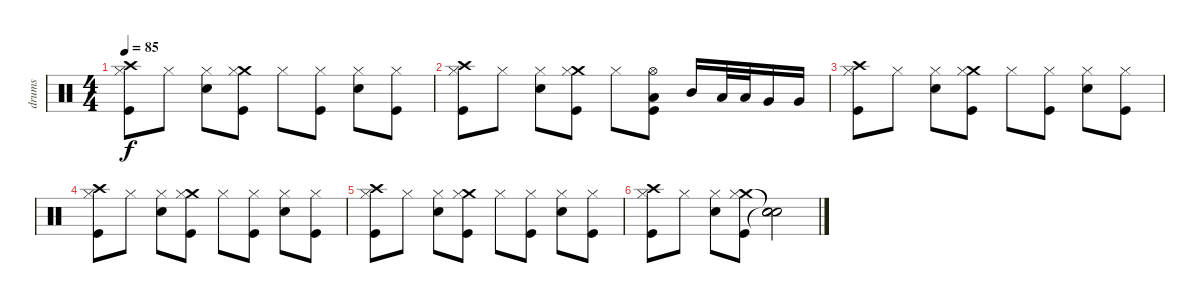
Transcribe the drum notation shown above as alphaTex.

\track ("drums" "drums") {instrument percussion}
\staff {score}
\articulation defaults
\ts (4 4)
\tempo 85
\clef neutral
\ks c
("Crash high (hit)" "Hi-Hat (closed)" "Kick (hit)").8{dy f} "Hi-Hat (closed)".8 ("Hi-Hat (closed)" "Snare (hit) 2").8 ("Crash medium (hit)" "Hi-Hat (closed)" "Kick (hit)").8 "Hi-Hat (closed)".8 ("Hi-Hat (closed)" "Kick (hit)").8 ("Hi-Hat (closed)" "Snare (hit) 2").8 ("Hi-Hat (closed)" "Kick (hit)").8 |
("Crash high (hit)" "Hi-Hat (closed)" "Kick (hit)").8 "Hi-Hat (closed)".8 ("Hi-Hat (closed)" "Snare (hit) 2").8 ("Crash medium (hit)" "Hi-Hat (closed)" "Kick (hit)").8 "Hi-Hat (closed)".8 ("Hi-Hat (open)" "Low Floor Tom (hit)" "Kick (hit)").8 "Mid Tom (hit)".16 "Low Tom (hit)".32 "Low Tom (hit)".32 "Very Low Tom (hit)".16 "Very Low Tom (hit)".16 |
("Crash high (hit)" "Hi-Hat (closed)" "Kick (hit)").8 "Hi-Hat (closed)".8 ("Hi-Hat (closed)" "Snare (hit) 2").8 ("Crash medium (hit)" "Hi-Hat (closed)" "Kick (hit)").8 "Hi-Hat (closed)".8 ("Hi-Hat (closed)" "Kick (hit)").8 ("Hi-Hat (closed)" "Snare (hit) 2").8 ("Hi-Hat (closed)" "Kick (hit)").8 |
("Crash high (hit)" "Hi-Hat (closed)" "Kick (hit)").8 "Hi-Hat (closed)".8 ("Hi-Hat (closed)" "Snare (hit) 2").8 ("Crash medium (hit)" "Hi-Hat (closed)" "Kick (hit)").8 "Hi-Hat (closed)".8 ("Hi-Hat (closed)" "Kick (hit)").8 ("Hi-Hat (closed)" "Snare (hit) 2").8 ("Hi-Hat (closed)" "Kick (hit)").8 |
("Crash high (hit)" "Hi-Hat (closed)" "Kick (hit)").8 "Hi-Hat (closed)".8 ("Hi-Hat (closed)" "Snare (hit) 2").8 ("Crash medium (hit)" "Hi-Hat (closed)" "Kick (hit)").8 "Hi-Hat (closed)".8 ("Hi-Hat (closed)" "Kick (hit)").8 ("Hi-Hat (closed)" "Snare (hit) 2").8 ("Hi-Hat (closed)" "Kick (hit)").8 |
("Crash high (hit)" "Hi-Hat (closed)" "Kick (hit)").8 "Hi-Hat (closed)".8 ("Hi-Hat (closed)" "Snare (hit) 2").8 ("Crash medium (hit)" "Hi-Hat (closed)" "Kick (hit)").8 ("Snare (hit)"{t} "Snare (hit)"{t} "Snare (hit)"{t}).2
